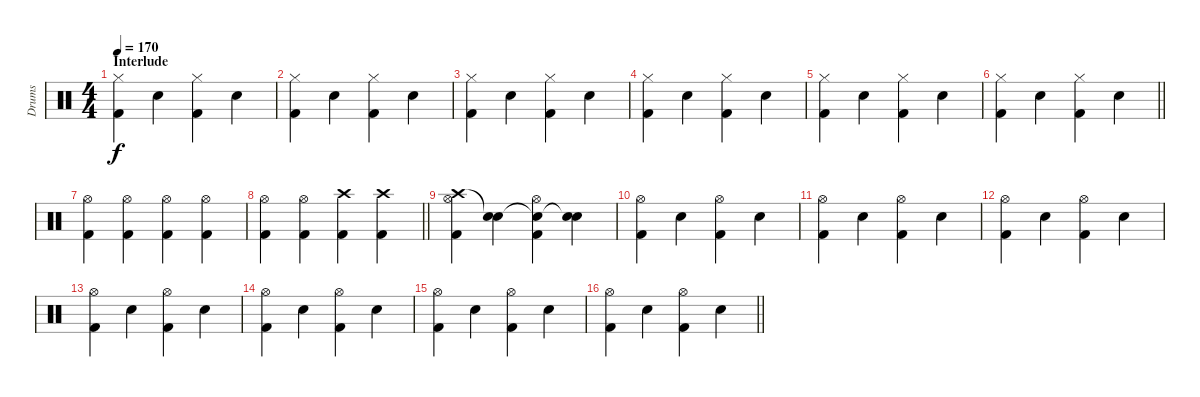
\track ("Drums" "Drums") {instrument percussion}
\staff {score}
\articulation defaults
\ts (4 4)
\section ("" "Interlude")
\tempo 170
\clef neutral
\ks c
("Hi-Hat (closed)" "Kick (hit) 2").4{dy f} "Snare (hit) 2".4 ("Hi-Hat (closed)" "Kick (hit) 2").4 "Snare (hit) 2".4 |
("Hi-Hat (closed)" "Kick (hit) 2").4 "Snare (hit) 2".4 ("Hi-Hat (closed)" "Kick (hit) 2").4 "Snare (hit) 2".4 |
("Hi-Hat (closed)" "Kick (hit) 2").4 "Snare (hit) 2".4 ("Hi-Hat (closed)" "Kick (hit) 2").4 "Snare (hit) 2".4 |
("Hi-Hat (closed)" "Kick (hit) 2").4 "Snare (hit) 2".4 ("Hi-Hat (closed)" "Kick (hit) 2").4 "Snare (hit) 2".4 |
("Hi-Hat (closed)" "Kick (hit) 2").4 "Snare (hit) 2".4 ("Hi-Hat (closed)" "Kick (hit) 2").4 "Snare (hit) 2".4 |
\barLineRight lightlight
("Hi-Hat (closed)" "Kick (hit) 2").4 "Snare (hit) 2".4 ("Hi-Hat (closed)" "Kick (hit) 2").4 "Snare (hit) 2".4 |
("Hi-Hat (open)" "Kick (hit) 2").4 ("Hi-Hat (open)" "Kick (hit) 2").4 ("Hi-Hat (open)" "Kick (hit) 2").4 ("Hi-Hat (open)" "Kick (hit) 2").4 |
\barLineRight lightlight
("Hi-Hat (open)" "Kick (hit) 2").4 ("Hi-Hat (open)" "Kick (hit) 2").4 ("Crash high (hit)" "Kick (hit) 2").4 ("Crash high (hit)" "Kick (hit) 2").4 |
("Crash high (hit)" "Hi-Hat (open)" "Kick (hit) 2").4 ("Snare (hit)"{t} "Snare (hit) 2").4 ("Snare (hit)"{t} "Hi-Hat (open)" "Kick (hit) 2").4 ("Snare (hit)"{t} "Snare (hit) 2").4 |
("Hi-Hat (open)" "Kick (hit) 2").4 "Snare (hit) 2".4 ("Hi-Hat (open)" "Kick (hit) 2").4 "Snare (hit) 2".4 |
("Hi-Hat (open)" "Kick (hit) 2").4 "Snare (hit) 2".4 ("Hi-Hat (open)" "Kick (hit) 2").4 "Snare (hit) 2".4 |
("Hi-Hat (open)" "Kick (hit) 2").4 "Snare (hit) 2".4 ("Hi-Hat (open)" "Kick (hit) 2").4 "Snare (hit) 2".4 |
("Hi-Hat (open)" "Kick (hit) 2").4 "Snare (hit) 2".4 ("Hi-Hat (open)" "Kick (hit) 2").4 "Snare (hit) 2".4 |
("Hi-Hat (open)" "Kick (hit) 2").4 "Snare (hit) 2".4 ("Hi-Hat (open)" "Kick (hit) 2").4 "Snare (hit) 2".4 |
("Hi-Hat (open)" "Kick (hit) 2").4 "Snare (hit) 2".4 ("Hi-Hat (open)" "Kick (hit) 2").4 "Snare (hit) 2".4 |
\barLineRight lightlight
("Hi-Hat (open)" "Kick (hit) 2").4 "Snare (hit) 2".4 ("Hi-Hat (open)" "Kick (hit) 2").4 "Snare (hit) 2".4
